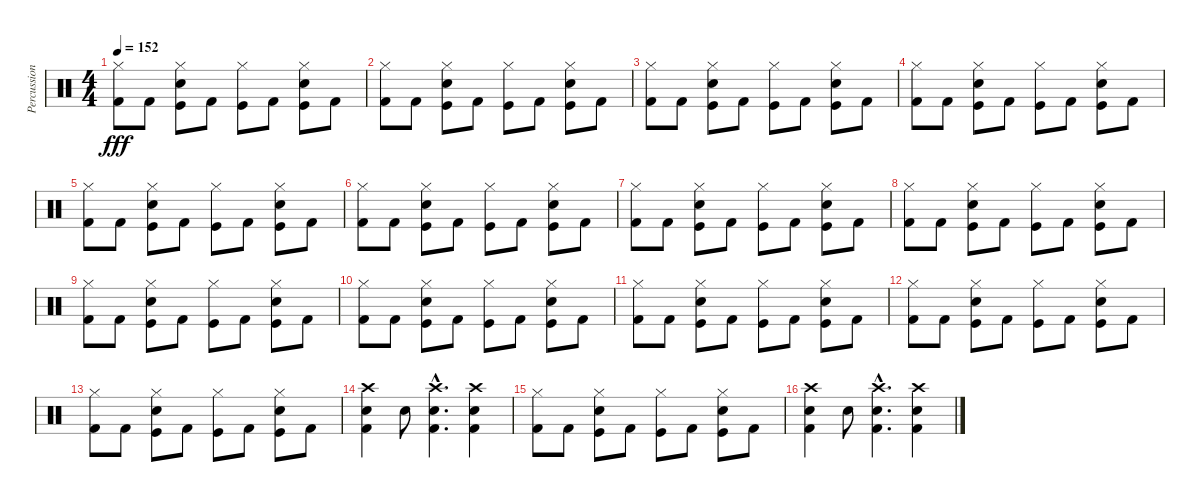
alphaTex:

\track ("Percussions" "Percussion") {instrument percussion}
\staff {score}
\articulation defaults
\ts (4 4)
\tempo 152
\clef neutral
\ks c
("Hi-Hat (closed)" "Kick (hit) 2").8{dy fff} "Kick (hit) 2".8 ("Hi-Hat (closed)" "Snare (hit) 2" "Kick (hit)").8 "Kick (hit) 2".8 ("Hi-Hat (closed)" "Kick (hit)").8 "Kick (hit) 2".8 ("Hi-Hat (closed)" "Snare (hit) 2" "Kick (hit)").8 "Kick (hit) 2".8 |
("Hi-Hat (closed)" "Kick (hit) 2").8 "Kick (hit) 2".8 ("Hi-Hat (closed)" "Snare (hit) 2" "Kick (hit)").8 "Kick (hit) 2".8 ("Hi-Hat (closed)" "Kick (hit)").8 "Kick (hit) 2".8 ("Hi-Hat (closed)" "Snare (hit) 2" "Kick (hit)").8 "Kick (hit) 2".8 |
("Hi-Hat (closed)" "Kick (hit) 2").8 "Kick (hit) 2".8 ("Hi-Hat (closed)" "Snare (hit) 2" "Kick (hit)").8 "Kick (hit) 2".8 ("Hi-Hat (closed)" "Kick (hit)").8 "Kick (hit) 2".8 ("Hi-Hat (closed)" "Snare (hit) 2" "Kick (hit)").8 "Kick (hit) 2".8 |
("Hi-Hat (closed)" "Kick (hit) 2").8 "Kick (hit) 2".8 ("Hi-Hat (closed)" "Snare (hit) 2" "Kick (hit)").8 "Kick (hit) 2".8 ("Hi-Hat (closed)" "Kick (hit)").8 "Kick (hit) 2".8 ("Hi-Hat (closed)" "Snare (hit) 2" "Kick (hit)").8 "Kick (hit) 2".8 |
("Hi-Hat (closed)" "Kick (hit) 2").8 "Kick (hit) 2".8 ("Hi-Hat (closed)" "Snare (hit) 2" "Kick (hit)").8 "Kick (hit) 2".8 ("Hi-Hat (closed)" "Kick (hit)").8 "Kick (hit) 2".8 ("Hi-Hat (closed)" "Snare (hit) 2" "Kick (hit)").8 "Kick (hit) 2".8 |
("Hi-Hat (closed)" "Kick (hit) 2").8 "Kick (hit) 2".8 ("Hi-Hat (closed)" "Snare (hit) 2" "Kick (hit)").8 "Kick (hit) 2".8 ("Hi-Hat (closed)" "Kick (hit)").8 "Kick (hit) 2".8 ("Hi-Hat (closed)" "Snare (hit) 2" "Kick (hit)").8 "Kick (hit) 2".8 |
("Hi-Hat (closed)" "Kick (hit) 2").8 "Kick (hit) 2".8 ("Hi-Hat (closed)" "Snare (hit) 2" "Kick (hit)").8 "Kick (hit) 2".8 ("Hi-Hat (closed)" "Kick (hit)").8 "Kick (hit) 2".8 ("Hi-Hat (closed)" "Snare (hit) 2" "Kick (hit)").8 "Kick (hit) 2".8 |
("Hi-Hat (closed)" "Kick (hit) 2").8 "Kick (hit) 2".8 ("Hi-Hat (closed)" "Snare (hit) 2" "Kick (hit)").8 "Kick (hit) 2".8 ("Hi-Hat (closed)" "Kick (hit)").8 "Kick (hit) 2".8 ("Hi-Hat (closed)" "Snare (hit) 2" "Kick (hit)").8 "Kick (hit) 2".8 |
("Hi-Hat (closed)" "Kick (hit) 2").8 "Kick (hit) 2".8 ("Hi-Hat (closed)" "Snare (hit) 2" "Kick (hit)").8 "Kick (hit) 2".8 ("Hi-Hat (closed)" "Kick (hit)").8 "Kick (hit) 2".8 ("Hi-Hat (closed)" "Snare (hit) 2" "Kick (hit)").8 "Kick (hit) 2".8 |
("Hi-Hat (closed)" "Kick (hit) 2").8 "Kick (hit) 2".8 ("Hi-Hat (closed)" "Snare (hit) 2" "Kick (hit)").8 "Kick (hit) 2".8 ("Hi-Hat (closed)" "Kick (hit)").8 "Kick (hit) 2".8 ("Hi-Hat (closed)" "Snare (hit) 2" "Kick (hit)").8 "Kick (hit) 2".8 |
("Hi-Hat (closed)" "Kick (hit) 2").8 "Kick (hit) 2".8 ("Hi-Hat (closed)" "Snare (hit) 2" "Kick (hit)").8 "Kick (hit) 2".8 ("Hi-Hat (closed)" "Kick (hit)").8 "Kick (hit) 2".8 ("Hi-Hat (closed)" "Snare (hit) 2" "Kick (hit)").8 "Kick (hit) 2".8 |
("Hi-Hat (closed)" "Kick (hit) 2").8 "Kick (hit) 2".8 ("Hi-Hat (closed)" "Snare (hit) 2" "Kick (hit)").8 "Kick (hit) 2".8 ("Hi-Hat (closed)" "Kick (hit)").8 "Kick (hit) 2".8 ("Hi-Hat (closed)" "Snare (hit) 2" "Kick (hit)").8 "Kick (hit) 2".8 |
("Hi-Hat (closed)" "Kick (hit) 2").8 "Kick (hit) 2".8 ("Hi-Hat (closed)" "Snare (hit) 2" "Kick (hit)").8 "Kick (hit) 2".8 ("Hi-Hat (closed)" "Kick (hit)").8 "Kick (hit) 2".8 ("Hi-Hat (closed)" "Snare (hit) 2" "Kick (hit)").8 "Kick (hit) 2".8 |
("Crash high (hit)" "Snare (hit) 2" "Kick (hit) 2").4 "Snare (hit) 2".8 ("Crash high (hit)"{hac} "Snare (hit) 2"{hac} "Kick (hit) 2"{hac}).4{d} ("Crash high (hit)" "Snare (hit) 2" "Kick (hit) 2").4 |
("Hi-Hat (closed)" "Kick (hit) 2").8 "Kick (hit) 2".8 ("Hi-Hat (closed)" "Snare (hit) 2" "Kick (hit)").8 "Kick (hit) 2".8 ("Hi-Hat (closed)" "Kick (hit)").8 "Kick (hit) 2".8 ("Hi-Hat (closed)" "Snare (hit) 2" "Kick (hit)").8 "Kick (hit) 2".8 |
("Crash high (hit)" "Snare (hit) 2" "Kick (hit) 2").4 "Snare (hit) 2".8 ("Crash high (hit)"{hac} "Snare (hit) 2"{hac} "Kick (hit) 2"{hac}).4{d} ("Crash high (hit)" "Snare (hit) 2" "Kick (hit) 2").4
